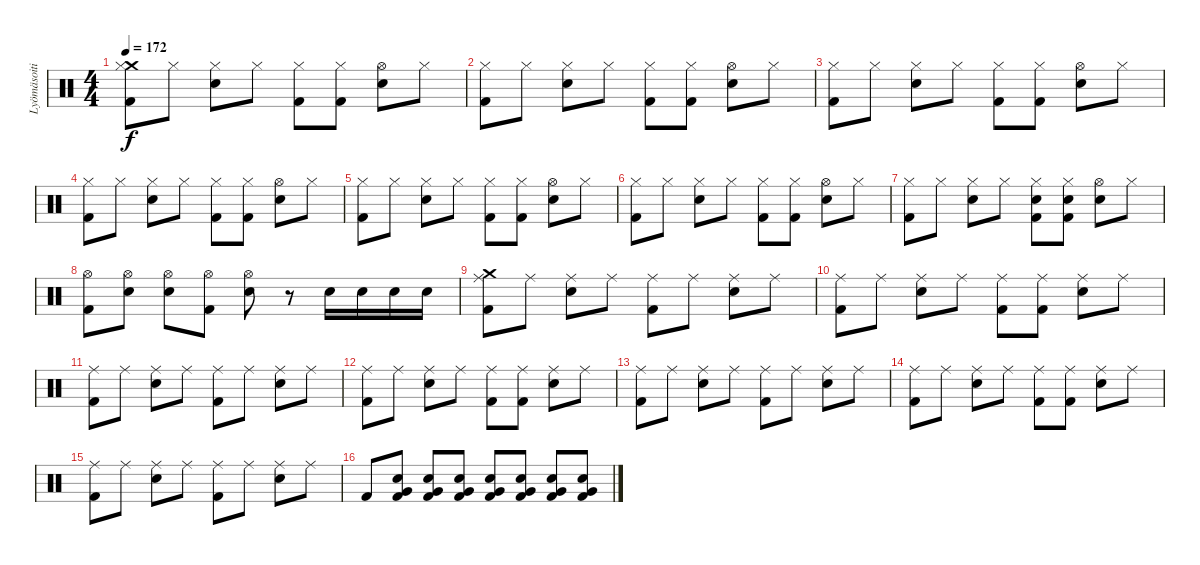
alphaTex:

\track ("Lyömäsoitin" "Lyömäsoiti") {instrument percussion}
\staff {score}
\articulation defaults
\ts (4 4)
\tempo 172
\clef neutral
\ks c
("Crash medium (hit)" "Hi-Hat (closed)" "Kick (hit) 2").8{dy f} "Hi-Hat (closed)".8 ("Hi-Hat (closed)" "Electric Snare (hit)").8 "Hi-Hat (closed)".8 ("Hi-Hat (closed)" "Kick (hit) 2").8 ("Hi-Hat (closed)" "Kick (hit) 2").8 ("Hi-Hat (open)" "Electric Snare (hit)").8 "Hi-Hat (closed)".8 |
("Hi-Hat (closed)" "Kick (hit) 2").8 "Hi-Hat (closed)".8 ("Hi-Hat (closed)" "Electric Snare (hit)").8 "Hi-Hat (closed)".8 ("Hi-Hat (closed)" "Kick (hit) 2").8 ("Hi-Hat (closed)" "Kick (hit) 2").8 ("Hi-Hat (open)" "Electric Snare (hit)").8 "Hi-Hat (closed)".8 |
("Hi-Hat (closed)" "Kick (hit) 2").8 "Hi-Hat (closed)".8 ("Hi-Hat (closed)" "Electric Snare (hit)").8 "Hi-Hat (closed)".8 ("Hi-Hat (closed)" "Kick (hit) 2").8 ("Hi-Hat (closed)" "Kick (hit) 2").8 ("Hi-Hat (open)" "Electric Snare (hit)").8 "Hi-Hat (closed)".8 |
("Hi-Hat (closed)" "Kick (hit) 2").8 "Hi-Hat (closed)".8 ("Hi-Hat (closed)" "Electric Snare (hit)").8 "Hi-Hat (closed)".8 ("Hi-Hat (closed)" "Kick (hit) 2").8 ("Hi-Hat (closed)" "Kick (hit) 2").8 ("Hi-Hat (open)" "Electric Snare (hit)").8 "Hi-Hat (closed)".8 |
("Hi-Hat (closed)" "Kick (hit) 2").8 "Hi-Hat (closed)".8 ("Hi-Hat (closed)" "Electric Snare (hit)").8 "Hi-Hat (closed)".8 ("Hi-Hat (closed)" "Kick (hit) 2").8 ("Hi-Hat (closed)" "Kick (hit) 2").8 ("Hi-Hat (open)" "Electric Snare (hit)").8 "Hi-Hat (closed)".8 |
("Hi-Hat (closed)" "Kick (hit) 2").8 "Hi-Hat (closed)".8 ("Hi-Hat (closed)" "Electric Snare (hit)").8 "Hi-Hat (closed)".8 ("Hi-Hat (closed)" "Kick (hit) 2").8 ("Hi-Hat (closed)" "Kick (hit) 2").8 ("Hi-Hat (open)" "Electric Snare (hit)").8 "Hi-Hat (closed)".8 |
("Hi-Hat (closed)" "Kick (hit) 2").8 "Hi-Hat (closed)".8 ("Hi-Hat (closed)" "Electric Snare (hit)").8 "Hi-Hat (closed)".8 ("Hi-Hat (closed)" "Electric Snare (hit)" "Kick (hit) 2").8 ("Hi-Hat (closed)" "Electric Snare (hit)" "Kick (hit) 2").8 ("Hi-Hat (open)" "Electric Snare (hit)").8 "Hi-Hat (closed)".8 |
("Hi-Hat (open)" "Kick (hit) 2").8 ("Hi-Hat (open)" "Electric Snare (hit)").8 ("Hi-Hat (open)" "Electric Snare (hit)").8 ("Hi-Hat (open)" "Kick (hit) 2").8 ("Hi-Hat (open)" "Electric Snare (hit)").8 r.8 "Electric Snare (hit)".16 "Electric Snare (hit)".16 "Electric Snare (hit)".16 "Electric Snare (hit)".16 |
("Crash medium (hit)" "Ride (middle)" "Kick (hit) 2").8 "Ride (middle)".8 ("Ride (middle)" "Electric Snare (hit)").8 "Ride (middle)".8 ("Ride (middle)" "Kick (hit) 2").8 "Ride (middle)".8 ("Ride (middle)" "Electric Snare (hit)").8 "Ride (middle)".8 |
("Ride (middle)" "Kick (hit) 2").8 "Ride (middle)".8 ("Ride (middle)" "Electric Snare (hit)").8 "Ride (middle)".8 ("Ride (middle)" "Kick (hit) 2").8 ("Ride (middle)" "Kick (hit) 2").8 ("Ride (middle)" "Electric Snare (hit)").8 "Ride (middle)".8 |
("Ride (middle)" "Kick (hit) 2").8 "Ride (middle)".8 ("Ride (middle)" "Electric Snare (hit)").8 "Ride (middle)".8 ("Ride (middle)" "Kick (hit) 2").8 "Ride (middle)".8 ("Ride (middle)" "Electric Snare (hit)").8 "Ride (middle)".8 |
("Ride (middle)" "Kick (hit) 2").8 "Ride (middle)".8 ("Ride (middle)" "Electric Snare (hit)").8 "Ride (middle)".8 ("Ride (middle)" "Kick (hit) 2").8 ("Ride (middle)" "Kick (hit) 2").8 ("Ride (middle)" "Electric Snare (hit)").8 "Ride (middle)".8 |
("Ride (middle)" "Kick (hit) 2").8 "Ride (middle)".8 ("Ride (middle)" "Electric Snare (hit)").8 "Ride (middle)".8 ("Ride (middle)" "Kick (hit) 2").8 "Ride (middle)".8 ("Ride (middle)" "Electric Snare (hit)").8 "Ride (middle)".8 |
("Ride (middle)" "Kick (hit) 2").8 "Ride (middle)".8 ("Ride (middle)" "Electric Snare (hit)").8 "Ride (middle)".8 ("Ride (middle)" "Kick (hit) 2").8 ("Ride (middle)" "Kick (hit) 2").8 ("Ride (middle)" "Electric Snare (hit)").8 "Ride (middle)".8 |
("Ride (middle)" "Kick (hit) 2").8 "Ride (middle)".8 ("Ride (middle)" "Electric Snare (hit)").8 "Ride (middle)".8 ("Ride (middle)" "Kick (hit) 2").8 "Ride (middle)".8 ("Ride (middle)" "Electric Snare (hit)").8 "Ride (middle)".8 |
"Kick (hit) 2".8 ("Very Low Tom (hit)" "Electric Snare (hit)" "Kick (hit) 2").8 ("Very Low Tom (hit)" "Electric Snare (hit)" "Kick (hit) 2").8 ("Very Low Tom (hit)" "Electric Snare (hit)" "Kick (hit) 2").8 ("Very Low Tom (hit)" "Electric Snare (hit)" "Kick (hit) 2").8 ("Very Low Tom (hit)" "Electric Snare (hit)" "Kick (hit) 2").8 ("Very Low Tom (hit)" "Electric Snare (hit)" "Kick (hit) 2").8 ("Very Low Tom (hit)" "Electric Snare (hit)" "Kick (hit) 2").8
